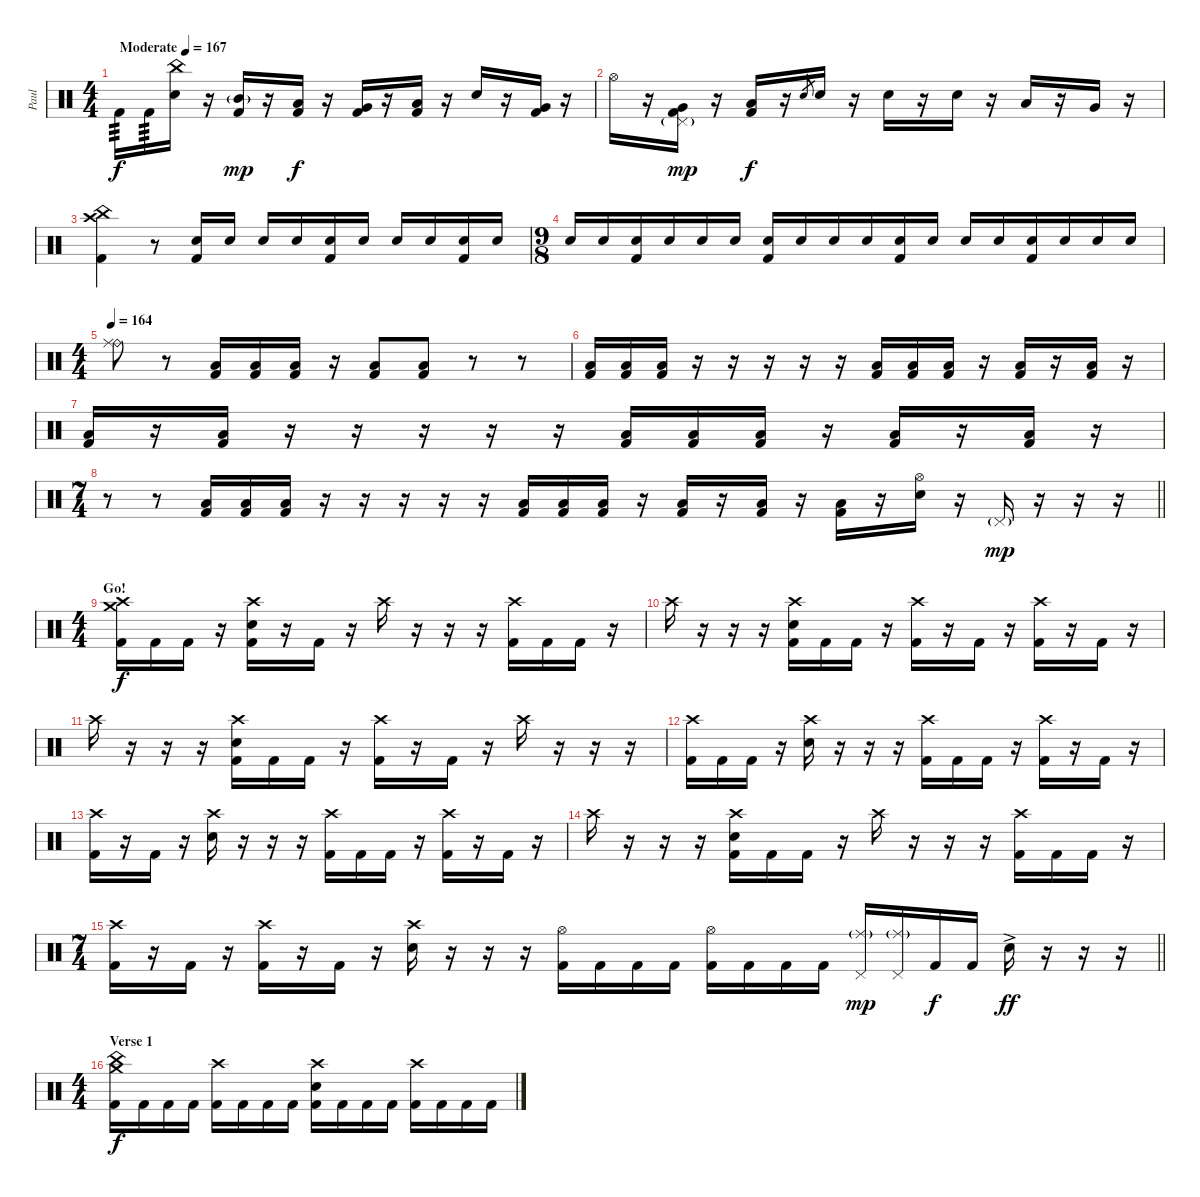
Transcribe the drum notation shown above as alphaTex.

\track ("Paul " "Paul ") {instrument percussion}
\staff {score}
\articulation defaults
\ts (4 4)
\tempo (167 "Moderate")
\clef neutral
\ks c "Kick (hit) 2".16{tp 3 dy f} "Kick (hit) 2".16{tp 3}
("Electric Snare (hit)" "China (hit)").16 r.16 ("Mid Tom (hit)"{g} "Kick (hit) 2").16{dy mp} r.16 ("Low Tom (hit)" "Kick (hit) 2").16{dy f} r.16 ("Very Low Tom (hit)" "Kick (hit) 2").16 r.16 ("Low Floor Tom (hit)" "Kick (hit) 2").16 r.16 "Electric Snare (hit)".16 r.16 ("Very Low Tom (hit)" "Kick (hit) 2").16 r.16 |
"Hi-Hat (open)".16 r.16 ("Very Low Tom (hit)" "Pedal Hi-Hat (hit)"{g} "Kick (hit) 2").16{dy mp} r.16 ("Low Tom (hit)" "Kick (hit) 2").16{dy f} r.16 "Electric Snare (hit)".8{gr} "Electric Snare (hit)".16 r.16 "Electric Snare (hit)".16 r.16 "Electric Snare (hit)".16 r.16 "Low Tom (hit)".16 r.16 "Very Low Tom (hit)".16 r.16 |
("Kick (hit) 2" "China (hit)" "Crash high (hit)").4 r.8 ("Kick (hit) 2" "Electric Snare (hit)").16 "Electric Snare (hit)".16 "Electric Snare (hit)".16 "Electric Snare (hit)".16 ("Kick (hit) 2" "Electric Snare (hit)").16 "Electric Snare (hit)".16 "Electric Snare (hit)".16 "Electric Snare (hit)".16 ("Kick (hit) 2" "Electric Snare (hit)").16 "Electric Snare (hit)".16 |
\ts (9 8)
"Electric Snare (hit)".16 "Electric Snare (hit)".16 ("Kick (hit) 2" "Electric Snare (hit)").16 "Electric Snare (hit)".16 "Electric Snare (hit)".16 "Electric Snare (hit)".16 ("Kick (hit) 2" "Electric Snare (hit)").16 "Electric Snare (hit)".16 "Electric Snare (hit)".16 "Electric Snare (hit)".16 ("Kick (hit) 2" "Electric Snare (hit)").16 "Electric Snare (hit)".16 "Electric Snare (hit)".16 "Electric Snare (hit)".16 ("Kick (hit) 2" "Electric Snare (hit)").16 "Electric Snare (hit)".16 "Electric Snare (hit)".16 "Electric Snare (hit)".16 |
\ts (4 4)
\tempo 164
("Ride (bell)" "Ride (middle)").8 r.8{volume 0} ("Kick (hit) 2" "Low Tom (hit)").16{volume 16} ("Kick (hit) 2" "Low Tom (hit)").16 ("Kick (hit) 2" "Low Tom (hit)").16 r.16 ("Kick (hit) 2" "Low Tom (hit)").8 ("Kick (hit) 2" "Low Tom (hit)").8 r.8 r.8 |
("Kick (hit) 2" "Low Tom (hit)").16 ("Kick (hit) 2" "Low Tom (hit)").16 ("Kick (hit) 2" "Low Tom (hit)").16 r.16 r.16 r.16 r.16 r.16 ("Kick (hit) 2" "Low Tom (hit)").16 ("Kick (hit) 2" "Low Tom (hit)").16 ("Kick (hit) 2" "Low Tom (hit)").16 r.16 ("Kick (hit) 2" "Low Tom (hit)").16 r.16 ("Kick (hit) 2" "Low Tom (hit)").16 r.16 |
("Kick (hit) 2" "Low Tom (hit)").16 r.16 ("Kick (hit) 2" "Low Tom (hit)").16 r.16 r.16 r.16 r.16 r.16 ("Kick (hit) 2" "Low Tom (hit)").16 ("Kick (hit) 2" "Low Tom (hit)").16 ("Kick (hit) 2" "Low Tom (hit)").16 r.16 ("Kick (hit) 2" "Low Tom (hit)").16 r.16 ("Kick (hit) 2" "Low Tom (hit)").16 r.16 |
\ts (7 4)
\barLineRight lightlight
r.8 r.8 ("Kick (hit) 2" "Low Tom (hit)").16 ("Kick (hit) 2" "Low Tom (hit)").16 ("Kick (hit) 2" "Low Tom (hit)").16 r.16 r.16 r.16 r.16 r.16 ("Kick (hit) 2" "Low Tom (hit)").16 ("Kick (hit) 2" "Low Tom (hit)").16 ("Kick (hit) 2" "Low Tom (hit)").16 r.16 ("Kick (hit) 2" "Low Tom (hit)").16 r.16 ("Kick (hit) 2" "Low Tom (hit)").16 r.16 ("Kick (hit) 2" "Low Tom (hit)").16 r.16 ("Electric Snare (hit)" "Hi-Hat (open)").16 r.16 "Pedal Hi-Hat (hit)"{g}.16{dy mp} r.16 r.16 r.16 |
\ts (4 4)
\section ("" "Go!")
("Kick (hit) 2" "Crash high (hit)" "Crash medium (hit)").16{dy f} "Kick (hit) 2".16 "Kick (hit) 2".16 r.16 ("Kick (hit) 2" "Electric Snare (hit)" "Crash high (hit)").16 r.16 "Kick (hit) 2".16 r.16 "Crash high (hit)".16 r.16 r.16 r.16 ("Kick (hit) 2" "Crash high (hit)").16 "Kick (hit) 2".16 "Kick (hit) 2".16 r.16 |
"Crash high (hit)".16 r.16 r.16 r.16 ("Kick (hit) 2" "Electric Snare (hit)" "Crash high (hit)").16 "Kick (hit) 2".16 "Kick (hit) 2".16 r.16 ("Kick (hit) 2" "Crash high (hit)").16 r.16 "Kick (hit) 2".16 r.16 ("Kick (hit) 2" "Crash high (hit)").16 r.16 "Kick (hit) 2".16 r.16 |
"Crash high (hit)".16 r.16 r.16 r.16 ("Kick (hit) 2" "Electric Snare (hit)" "Crash high (hit)").16 "Kick (hit) 2".16 "Kick (hit) 2".16 r.16 ("Kick (hit) 2" "Crash high (hit)").16 r.16 "Kick (hit) 2".16 r.16 "Crash high (hit)".16 r.16 r.16 r.16 |
("Kick (hit) 2" "Crash high (hit)").16 "Kick (hit) 2".16 "Kick (hit) 2".16 r.16 ("Electric Snare (hit)" "Crash high (hit)").16 r.16 r.16 r.16 ("Kick (hit) 2" "Crash high (hit)").16 "Kick (hit) 2".16 "Kick (hit) 2".16 r.16 ("Kick (hit) 2" "Crash high (hit)").16 r.16 "Kick (hit) 2".16 r.16 |
("Kick (hit) 2" "Crash high (hit)").16 r.16 "Kick (hit) 2".16 r.16 ("Electric Snare (hit)" "Crash high (hit)").16 r.16 r.16 r.16 ("Kick (hit) 2" "Crash high (hit)").16 "Kick (hit) 2".16 "Kick (hit) 2".16 r.16 ("Kick (hit) 2" "Crash high (hit)").16 r.16 "Kick (hit) 2".16 r.16 |
"Crash high (hit)".16 r.16 r.16 r.16 ("Kick (hit) 2" "Electric Snare (hit)" "Crash high (hit)").16 "Kick (hit) 2".16 "Kick (hit) 2".16 r.16 "Crash high (hit)".16 r.16 r.16 r.16 ("Kick (hit) 2" "Crash high (hit)").16 "Kick (hit) 2".16 "Kick (hit) 2".16 r.16 |
\ts (7 4)
\barLineRight lightlight
("Kick (hit) 2" "Crash high (hit)").16 r.16 "Kick (hit) 2".16 r.16 ("Kick (hit) 2" "Crash high (hit)").16 r.16 "Kick (hit) 2".16 r.16 ("Electric Snare (hit)" "Crash high (hit)").16 r.16 r.16 r.16 ("Kick (hit) 2" "Hi-Hat (open)").16 "Kick (hit) 2".16 "Kick (hit) 2".16 "Kick (hit) 2".16 ("Kick (hit) 2" "Hi-Hat (open)").16 "Kick (hit) 2".16 "Kick (hit) 2".16 "Kick (hit) 2".16 ("Pedal Hi-Hat (hit)" "Ride (middle)"{g}).16{dy mp} ("Pedal Hi-Hat (hit)" "Ride (middle)"{g}).16 "Kick (hit) 2".16{dy f} "Kick (hit) 2".16 "Electric Snare (hit)"{ac}.16{dy ff} r.16 r.16 r.16 |
\ts (4 4)
\section ("" "Verse 1")
("Kick (hit) 2" "Crash medium (hit)" "China (hit)").16{dy f} "Kick (hit) 2".16 "Kick (hit) 2".16 "Kick (hit) 2".16 ("Kick (hit) 2" "Crash high (hit)").16 "Kick (hit) 2".16 "Kick (hit) 2".16 "Kick (hit) 2".16 ("Kick (hit) 2" "Electric Snare (hit)" "Crash high (hit)").16 "Kick (hit) 2".16 "Kick (hit) 2".16 "Kick (hit) 2".16 ("Kick (hit) 2" "Crash high (hit)").16 "Kick (hit) 2".16 "Kick (hit) 2".16 "Kick (hit) 2".16
